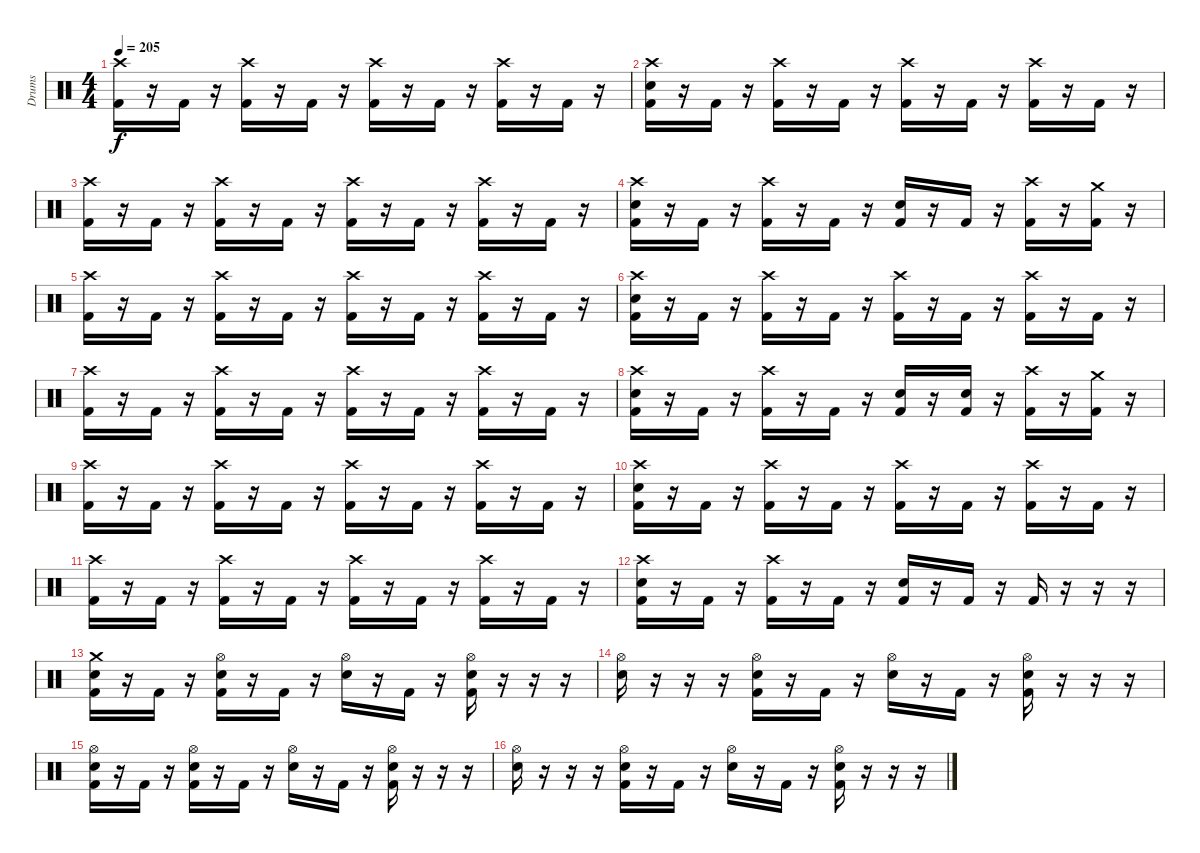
\track ("Drums" "Drums") {instrument percussion}
\staff {score}
\articulation defaults
\ts (4 4)
\tempo 205
\clef neutral
\ks c
("Crash high (hit)" "Kick (hit) 2").16{dy f} r.16 "Kick (hit) 2".16 r.16 ("Crash high (hit)" "Kick (hit) 2").16 r.16 "Kick (hit) 2".16 r.16 ("Crash high (hit)" "Kick (hit) 2").16 r.16 "Kick (hit) 2".16 r.16 ("Crash high (hit)" "Kick (hit) 2").16 r.16 "Kick (hit) 2".16 r.16 |
("Crash high (hit)" "Electric Snare (hit)" "Kick (hit) 2").16 r.16 "Kick (hit) 2".16 r.16 ("Crash high (hit)" "Kick (hit) 2").16 r.16 "Kick (hit) 2".16 r.16 ("Crash high (hit)" "Kick (hit) 2").16 r.16 "Kick (hit) 2".16 r.16 ("Crash high (hit)" "Kick (hit) 2").16 r.16 "Kick (hit) 2".16 r.16 |
("Crash high (hit)" "Kick (hit) 2").16 r.16 "Kick (hit) 2".16 r.16 ("Crash high (hit)" "Kick (hit) 2").16 r.16 "Kick (hit) 2".16 r.16 ("Crash high (hit)" "Kick (hit) 2").16 r.16 "Kick (hit) 2".16 r.16 ("Crash high (hit)" "Kick (hit) 2").16 r.16 "Kick (hit) 2".16 r.16 |
("Crash high (hit)" "Electric Snare (hit)" "Kick (hit) 2").16 r.16 "Kick (hit) 2".16 r.16 ("Crash high (hit)" "Kick (hit) 2").16 r.16 "Kick (hit) 2".16 r.16 ("Electric Snare (hit)" "Kick (hit) 2").16 r.16 "Kick (hit) 2".16 r.16 ("Crash high (hit)" "Kick (hit) 2").16 r.16 ("Crash medium (hit)" "Kick (hit) 2").16 r.16 |
("Crash high (hit)" "Kick (hit) 2").16 r.16 "Kick (hit) 2".16 r.16 ("Crash high (hit)" "Kick (hit) 2").16 r.16 "Kick (hit) 2".16 r.16 ("Crash high (hit)" "Kick (hit) 2").16 r.16 "Kick (hit) 2".16 r.16 ("Crash high (hit)" "Kick (hit) 2").16 r.16 "Kick (hit) 2".16 r.16 |
("Crash high (hit)" "Electric Snare (hit)" "Kick (hit) 2").16 r.16 "Kick (hit) 2".16 r.16 ("Crash high (hit)" "Kick (hit) 2").16 r.16 "Kick (hit) 2".16 r.16 ("Crash high (hit)" "Kick (hit) 2").16 r.16 "Kick (hit) 2".16 r.16 ("Crash high (hit)" "Kick (hit) 2").16 r.16 "Kick (hit) 2".16 r.16 |
("Crash high (hit)" "Kick (hit) 2").16 r.16 "Kick (hit) 2".16 r.16 ("Crash high (hit)" "Kick (hit) 2").16 r.16 "Kick (hit) 2".16 r.16 ("Crash high (hit)" "Kick (hit) 2").16 r.16 "Kick (hit) 2".16 r.16 ("Crash high (hit)" "Kick (hit) 2").16 r.16 "Kick (hit) 2".16 r.16 |
("Crash high (hit)" "Electric Snare (hit)" "Kick (hit) 2").16 r.16 "Kick (hit) 2".16 r.16 ("Crash high (hit)" "Kick (hit) 2").16 r.16 "Kick (hit) 2".16 r.16 ("Electric Snare (hit)" "Kick (hit) 2").16 r.16 ("Electric Snare (hit)" "Kick (hit) 2").16 r.16 ("Crash high (hit)" "Kick (hit) 2").16 r.16 ("Crash medium (hit)" "Kick (hit) 2").16 r.16 |
("Crash high (hit)" "Kick (hit) 2").16 r.16 "Kick (hit) 2".16 r.16 ("Crash high (hit)" "Kick (hit) 2").16 r.16 "Kick (hit) 2".16 r.16 ("Crash high (hit)" "Kick (hit) 2").16 r.16 "Kick (hit) 2".16 r.16 ("Crash high (hit)" "Kick (hit) 2").16 r.16 "Kick (hit) 2".16 r.16 |
("Crash high (hit)" "Electric Snare (hit)" "Kick (hit) 2").16 r.16 "Kick (hit) 2".16 r.16 ("Crash high (hit)" "Kick (hit) 2").16 r.16 "Kick (hit) 2".16 r.16 ("Crash high (hit)" "Kick (hit) 2").16 r.16 "Kick (hit) 2".16 r.16 ("Crash high (hit)" "Kick (hit) 2").16 r.16 "Kick (hit) 2".16 r.16 |
("Crash high (hit)" "Kick (hit) 2").16 r.16 "Kick (hit) 2".16 r.16 ("Crash high (hit)" "Kick (hit) 2").16 r.16 "Kick (hit) 2".16 r.16 ("Crash high (hit)" "Kick (hit) 2").16 r.16 "Kick (hit) 2".16 r.16 ("Crash high (hit)" "Kick (hit) 2").16 r.16 "Kick (hit) 2".16 r.16 |
("Crash high (hit)" "Electric Snare (hit)" "Kick (hit) 2").16 r.16 "Kick (hit) 2".16 r.16 ("Crash high (hit)" "Kick (hit) 2").16 r.16 "Kick (hit) 2".16 r.16 ("Electric Snare (hit)" "Kick (hit) 2").16 r.16 "Kick (hit) 2".16 r.16 "Kick (hit) 2".16 r.16 r.16 r.16 |
("Crash medium (hit)" "Electric Snare (hit)" "Kick (hit) 2").16 r.16 "Kick (hit) 2".16 r.16 ("Hi-Hat (open)" "Electric Snare (hit)" "Kick (hit) 2").16 r.16 "Kick (hit) 2".16 r.16 ("Hi-Hat (open)" "Electric Snare (hit)").16 r.16 "Kick (hit) 2".16 r.16 ("Hi-Hat (open)" "Electric Snare (hit)" "Kick (hit) 2").16 r.16 r.16 r.16 |
("Hi-Hat (open)" "Electric Snare (hit)").16 r.16 r.16 r.16 ("Hi-Hat (open)" "Electric Snare (hit)" "Kick (hit) 2").16 r.16 "Kick (hit) 2".16 r.16 ("Hi-Hat (open)" "Electric Snare (hit)").16 r.16 "Kick (hit) 2".16 r.16 ("Hi-Hat (open)" "Electric Snare (hit)" "Kick (hit) 2").16 r.16 r.16 r.16 |
("Hi-Hat (open)" "Electric Snare (hit)" "Kick (hit) 2").16 r.16 "Kick (hit) 2".16 r.16 ("Hi-Hat (open)" "Electric Snare (hit)" "Kick (hit) 2").16 r.16 "Kick (hit) 2".16 r.16 ("Hi-Hat (open)" "Electric Snare (hit)").16 r.16 "Kick (hit) 2".16 r.16 ("Hi-Hat (open)" "Electric Snare (hit)" "Kick (hit) 2").16 r.16 r.16 r.16 |
("Hi-Hat (open)" "Electric Snare (hit)").16 r.16 r.16 r.16 ("Hi-Hat (open)" "Electric Snare (hit)" "Kick (hit) 2").16 r.16 "Kick (hit) 2".16 r.16 ("Hi-Hat (open)" "Electric Snare (hit)").16 r.16 "Kick (hit) 2".16 r.16 ("Hi-Hat (open)" "Electric Snare (hit)" "Kick (hit) 2").16 r.16 r.16 r.16
